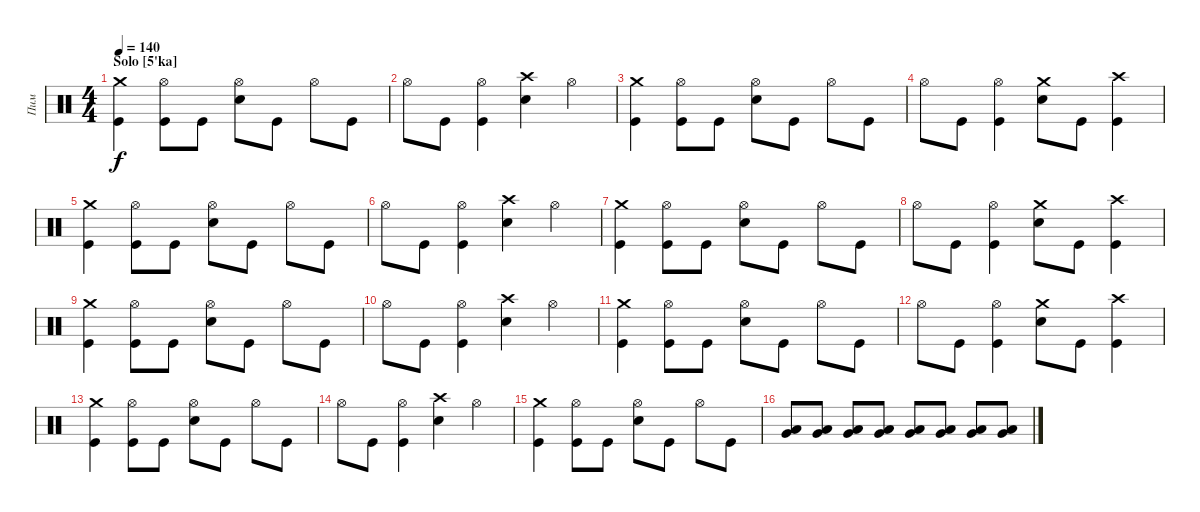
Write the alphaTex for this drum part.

\track ("Пим" "Пим") {instrument percussion}
\staff {score}
\articulation defaults
\ts (4 4)
\section ("" "Solo [5'ka]")
\tempo 140
\clef neutral
\ks c
("Crash medium (hit)" "Kick (hit)").4{dy f} ("Hi-Hat (open)" "Kick (hit)").8 "Kick (hit)".8 ("Hi-Hat (open)" "Snare (hit) 2").8 "Kick (hit)".8 "Hi-Hat (open)".8 "Kick (hit)".8 |
"Hi-Hat (open)".8 "Kick (hit)".8 ("Hi-Hat (open)" "Kick (hit)").4 ("Crash high (hit)" "Snare (hit) 2").4 "Hi-Hat (open)".4 |
("Crash medium (hit)" "Kick (hit)").4 ("Hi-Hat (open)" "Kick (hit)").8 "Kick (hit)".8 ("Hi-Hat (open)" "Snare (hit) 2").8 "Kick (hit)".8 "Hi-Hat (open)".8 "Kick (hit)".8 |
"Hi-Hat (open)".8 "Kick (hit)".8 ("Hi-Hat (open)" "Kick (hit)").4 ("Crash medium (hit)" "Snare (hit) 2").8 "Kick (hit)".8 ("Crash high (hit)" "Kick (hit)").4 |
("Crash medium (hit)" "Kick (hit)").4 ("Hi-Hat (open)" "Kick (hit)").8 "Kick (hit)".8 ("Hi-Hat (open)" "Snare (hit) 2").8 "Kick (hit)".8 "Hi-Hat (open)".8 "Kick (hit)".8 |
"Hi-Hat (open)".8 "Kick (hit)".8 ("Hi-Hat (open)" "Kick (hit)").4 ("Crash high (hit)" "Snare (hit) 2").4 "Hi-Hat (open)".4 |
("Crash medium (hit)" "Kick (hit)").4 ("Hi-Hat (open)" "Kick (hit)").8 "Kick (hit)".8 ("Hi-Hat (open)" "Snare (hit) 2").8 "Kick (hit)".8 "Hi-Hat (open)".8 "Kick (hit)".8 |
"Hi-Hat (open)".8 "Kick (hit)".8 ("Hi-Hat (open)" "Kick (hit)").4 ("Crash medium (hit)" "Snare (hit) 2").8 "Kick (hit)".8 ("Crash high (hit)" "Kick (hit)").4 |
("Crash medium (hit)" "Kick (hit)").4 ("Hi-Hat (open)" "Kick (hit)").8 "Kick (hit)".8 ("Hi-Hat (open)" "Snare (hit) 2").8 "Kick (hit)".8 "Hi-Hat (open)".8 "Kick (hit)".8 |
"Hi-Hat (open)".8 "Kick (hit)".8 ("Hi-Hat (open)" "Kick (hit)").4 ("Crash high (hit)" "Snare (hit) 2").4 "Hi-Hat (open)".4 |
("Crash medium (hit)" "Kick (hit)").4 ("Hi-Hat (open)" "Kick (hit)").8 "Kick (hit)".8 ("Hi-Hat (open)" "Snare (hit) 2").8 "Kick (hit)".8 "Hi-Hat (open)".8 "Kick (hit)".8 |
"Hi-Hat (open)".8 "Kick (hit)".8 ("Hi-Hat (open)" "Kick (hit)").4 ("Crash medium (hit)" "Snare (hit) 2").8 "Kick (hit)".8 ("Crash high (hit)" "Kick (hit)").4 |
("Crash medium (hit)" "Kick (hit)").4 ("Hi-Hat (open)" "Kick (hit)").8 "Kick (hit)".8 ("Hi-Hat (open)" "Snare (hit) 2").8 "Kick (hit)".8 "Hi-Hat (open)".8 "Kick (hit)".8 |
"Hi-Hat (open)".8 "Kick (hit)".8 ("Hi-Hat (open)" "Kick (hit)").4 ("Crash high (hit)" "Snare (hit) 2").4 "Hi-Hat (open)".4 |
("Crash medium (hit)" "Kick (hit)").4 ("Hi-Hat (open)" "Kick (hit)").8 "Kick (hit)".8 ("Hi-Hat (open)" "Snare (hit) 2").8 "Kick (hit)".8 "Hi-Hat (open)".8 "Kick (hit)".8 |
("Very Low Tom (hit)" "Low Floor Tom (hit)").8 ("Very Low Tom (hit)" "Low Floor Tom (hit)").8 ("Very Low Tom (hit)" "Low Floor Tom (hit)").8 ("Very Low Tom (hit)" "Low Floor Tom (hit)").8 ("Very Low Tom (hit)" "Low Floor Tom (hit)").8 ("Very Low Tom (hit)" "Low Floor Tom (hit)").8 ("Very Low Tom (hit)" "Low Floor Tom (hit)").8 ("Very Low Tom (hit)" "Low Floor Tom (hit)").8
